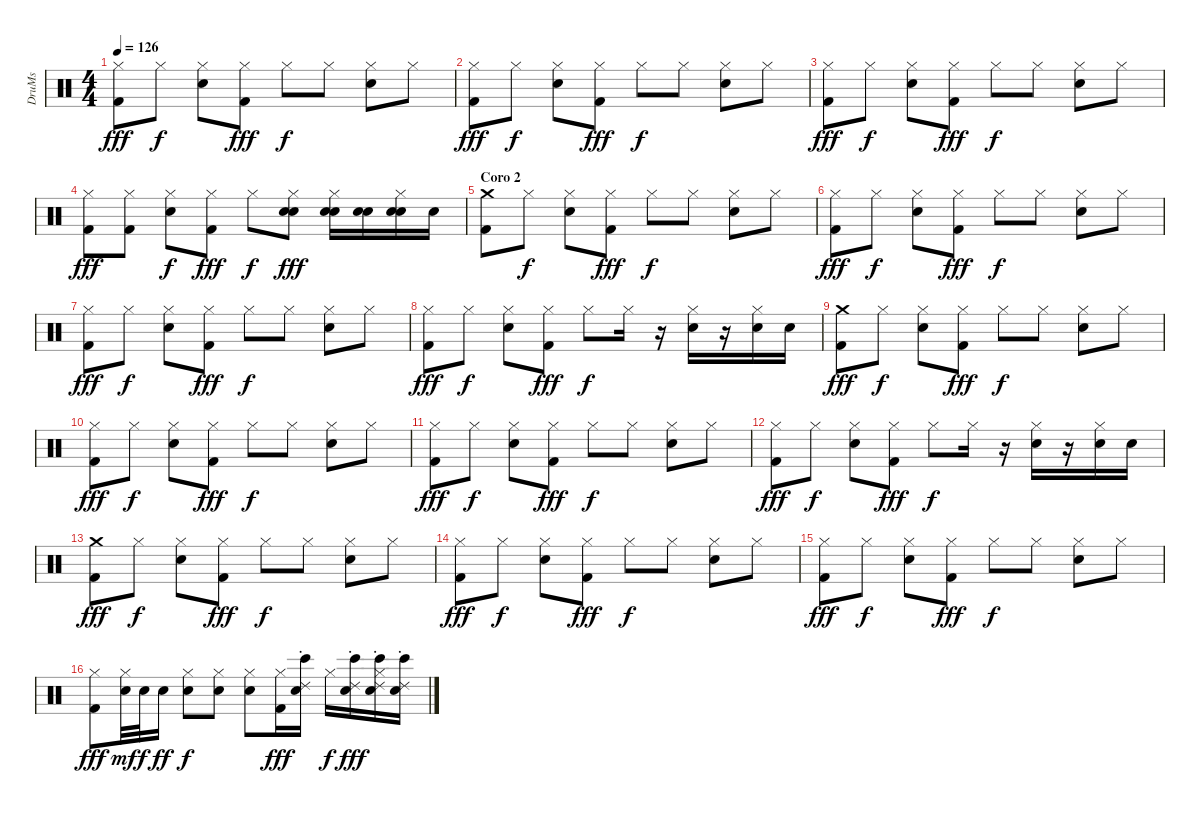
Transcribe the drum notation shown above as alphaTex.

\track ("DruMs" "DruMs") {instrument percussion}
\staff {score}
\articulation defaults
\ts (4 4)
\tempo 126
\clef neutral
\ks c
("Hi-Hat (closed)" "Kick (hit) 2").8{dy fff} "Hi-Hat (closed)".8{dy f} ("Hi-Hat (closed)" "Snare (hit) 2").8 ("Hi-Hat (closed)" "Kick (hit) 2").8{dy fff} "Hi-Hat (closed)".8{dy f} "Hi-Hat (closed)".8 ("Hi-Hat (closed)" "Snare (hit) 2").8 "Hi-Hat (closed)".8 |
("Hi-Hat (closed)" "Kick (hit) 2").8{dy fff} "Hi-Hat (closed)".8{dy f} ("Hi-Hat (closed)" "Snare (hit) 2").8 ("Hi-Hat (closed)" "Kick (hit) 2").8{dy fff} "Hi-Hat (closed)".8{dy f} "Hi-Hat (closed)".8 ("Hi-Hat (closed)" "Snare (hit) 2").8 "Hi-Hat (closed)".8 |
("Hi-Hat (closed)" "Kick (hit) 2").8{dy fff} "Hi-Hat (closed)".8{dy f} ("Hi-Hat (closed)" "Snare (hit) 2").8 ("Hi-Hat (closed)" "Kick (hit) 2").8{dy fff} "Hi-Hat (closed)".8{dy f} "Hi-Hat (closed)".8 ("Hi-Hat (closed)" "Snare (hit) 2").8 "Hi-Hat (closed)".8 |
("Hi-Hat (closed)" "Kick (hit) 2").8{dy fff} ("Hi-Hat (closed)" "Kick (hit) 2").8 ("Hi-Hat (closed)" "Snare (hit) 2").8{dy f} ("Hi-Hat (closed)" "Kick (hit) 2").8{dy fff} "Hi-Hat (closed)".8{dy f} ("Hi-Hat (closed)" "Snare (hit) 2" "Hand Clap (hit)").8{dy fff} ("Hi-Hat (closed)" "Snare (hit) 2" "Hand Clap (hit)").16 ("Snare (hit) 2" "Hand Clap (hit)").16 ("Hi-Hat (closed)" "Snare (hit) 2" "Hand Clap (hit)").16 "Hand Clap (hit)".16 |
\section ("" "Coro 2")
("Crash medium (hit)" "Kick (hit) 2").8 "Hi-Hat (closed)".8{dy f} ("Hi-Hat (closed)" "Snare (hit) 2").8 ("Hi-Hat (closed)" "Kick (hit) 2").8{dy fff} "Hi-Hat (closed)".8{dy f} "Hi-Hat (closed)".8 ("Hi-Hat (closed)" "Snare (hit) 2").8 "Hi-Hat (closed)".8 |
("Hi-Hat (closed)" "Kick (hit) 2").8{dy fff} "Hi-Hat (closed)".8{dy f} ("Hi-Hat (closed)" "Snare (hit) 2").8 ("Hi-Hat (closed)" "Kick (hit) 2").8{dy fff} "Hi-Hat (closed)".8{dy f} "Hi-Hat (closed)".8 ("Hi-Hat (closed)" "Snare (hit) 2").8 "Hi-Hat (closed)".8 |
("Hi-Hat (closed)" "Kick (hit) 2").8{dy fff} "Hi-Hat (closed)".8{dy f} ("Hi-Hat (closed)" "Snare (hit) 2").8 ("Hi-Hat (closed)" "Kick (hit) 2").8{dy fff} "Hi-Hat (closed)".8{dy f} "Hi-Hat (closed)".8 ("Hi-Hat (closed)" "Snare (hit) 2").8 "Hi-Hat (closed)".8 |
("Hi-Hat (closed)" "Kick (hit) 2").8{dy fff} "Hi-Hat (closed)".8{dy f} ("Hi-Hat (closed)" "Snare (hit) 2").8 ("Hi-Hat (closed)" "Kick (hit) 2").8{dy fff} "Hi-Hat (closed)".8{dy f} "Hi-Hat (closed)".16 r.16 ("Hi-Hat (closed)" "Snare (hit) 2").16 r.16 ("Hi-Hat (closed)" "Snare (hit) 2").16 "Snare (hit) 2".16 |
("Crash medium (hit)" "Kick (hit) 2").8{dy fff} "Hi-Hat (closed)".8{dy f} ("Hi-Hat (closed)" "Snare (hit) 2").8 ("Hi-Hat (closed)" "Kick (hit) 2").8{dy fff} "Hi-Hat (closed)".8{dy f} "Hi-Hat (closed)".8 ("Hi-Hat (closed)" "Snare (hit) 2").8 "Hi-Hat (closed)".8 |
("Hi-Hat (closed)" "Kick (hit) 2").8{dy fff} "Hi-Hat (closed)".8{dy f} ("Hi-Hat (closed)" "Snare (hit) 2").8 ("Hi-Hat (closed)" "Kick (hit) 2").8{dy fff} "Hi-Hat (closed)".8{dy f} "Hi-Hat (closed)".8 ("Hi-Hat (closed)" "Snare (hit) 2").8 "Hi-Hat (closed)".8 |
("Hi-Hat (closed)" "Kick (hit) 2").8{dy fff} "Hi-Hat (closed)".8{dy f} ("Hi-Hat (closed)" "Snare (hit) 2").8 ("Hi-Hat (closed)" "Kick (hit) 2").8{dy fff} "Hi-Hat (closed)".8{dy f} "Hi-Hat (closed)".8 ("Hi-Hat (closed)" "Snare (hit) 2").8 "Hi-Hat (closed)".8 |
("Hi-Hat (closed)" "Kick (hit) 2").8{dy fff} "Hi-Hat (closed)".8{dy f} ("Hi-Hat (closed)" "Snare (hit) 2").8 ("Hi-Hat (closed)" "Kick (hit) 2").8{dy fff} "Hi-Hat (closed)".8{dy f} "Hi-Hat (closed)".16 r.16 ("Hi-Hat (closed)" "Snare (hit) 2").16 r.16 ("Hi-Hat (closed)" "Snare (hit) 2").16 "Snare (hit) 2".16 |
("Crash medium (hit)" "Kick (hit) 2").8{dy fff} "Hi-Hat (closed)".8{dy f} ("Hi-Hat (closed)" "Snare (hit) 2").8 ("Hi-Hat (closed)" "Kick (hit) 2").8{dy fff} "Hi-Hat (closed)".8{dy f} "Hi-Hat (closed)".8 ("Hi-Hat (closed)" "Snare (hit) 2").8 "Hi-Hat (closed)".8 |
("Hi-Hat (closed)" "Kick (hit) 2").8{dy fff} "Hi-Hat (closed)".8{dy f} ("Hi-Hat (closed)" "Snare (hit) 2").8 ("Hi-Hat (closed)" "Kick (hit) 2").8{dy fff} "Hi-Hat (closed)".8{dy f} "Hi-Hat (closed)".8 ("Hi-Hat (closed)" "Snare (hit) 2").8 "Hi-Hat (closed)".8 |
("Hi-Hat (closed)" "Kick (hit) 2").8{dy fff} "Hi-Hat (closed)".8{dy f} ("Hi-Hat (closed)" "Snare (hit) 2").8 ("Hi-Hat (closed)" "Kick (hit) 2").8{dy fff} "Hi-Hat (closed)".8{dy f} "Hi-Hat (closed)".8 ("Hi-Hat (closed)" "Snare (hit) 2").8 "Hi-Hat (closed)".8 |
("Hi-Hat (closed)" "Kick (hit) 2").8{dy fff} ("Hi-Hat (closed)" "Snare (hit) 2").32{dy mf} "Snare (hit) 2".32{dy f} "Snare (hit) 2".16{dy ff} ("Hi-Hat (closed)" "Snare (hit) 2").8{dy f} ("Hi-Hat (closed)" "Snare (hit) 2").8 ("Hi-Hat (closed)" "Snare (hit) 2").8 ("Hi-Hat (closed)" "Kick (hit) 2").16{dy fff} ("Snare (hit) 2" "Bongo High (hit)" "Ride (choke) 2").16 "Hi-Hat (closed)".16{dy f} ("Snare (hit) 2" "Bongo High (hit)" "Ride (choke) 2").16{dy fff} ("Hi-Hat (closed)" "Snare (hit) 2" "Bongo High (hit)" "Ride (choke) 2").16 ("Snare (hit) 2" "Bongo High (hit)" "Ride (choke) 2").16
